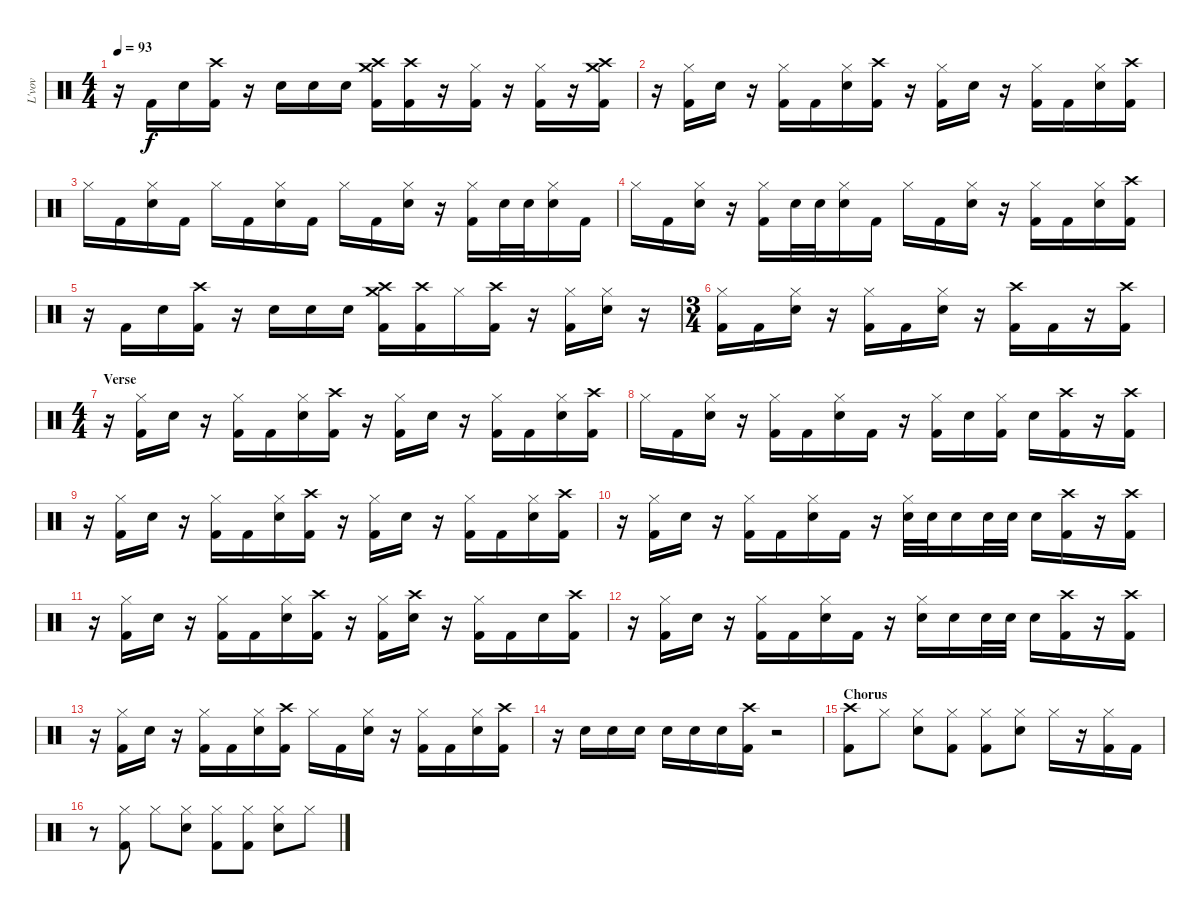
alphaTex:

\track ("L'vov" "L'vov") {instrument percussion}
\staff {score}
\articulation defaults
\ts (4 4)
\tempo 93
\clef neutral
\ks c
r.16{dy f} "Kick (hit) 2".16 "Snare (hit) 2".16 ("Kick (hit) 2" "Crash high (hit)").16 r.16 "Snare (hit) 2".16 "Snare (hit) 2".16 "Snare (hit) 2".16 ("Kick (hit) 2" "Crash high (hit)" "Crash medium (hit)").16 ("Kick (hit) 2" "Crash high (hit)").16 r.16 ("Kick (hit) 2" "Hi-Hat (closed)").16 r.16 ("Kick (hit) 2" "Hi-Hat (closed)").16 r.16 ("Kick (hit) 2" "Crash medium (hit)" "Crash high (hit)").16 |
r.16 ("Kick (hit) 2" "Hi-Hat (closed)").16 "Snare (hit) 2".16 r.16 ("Kick (hit) 2" "Hi-Hat (closed)").16 "Kick (hit) 2".16 ("Snare (hit) 2" "Hi-Hat (closed)").16 ("Kick (hit) 2" "Crash high (hit)").16 r.16 ("Kick (hit) 2" "Hi-Hat (closed)").16 "Snare (hit) 2".16 r.16 ("Kick (hit) 2" "Hi-Hat (closed)").16 "Kick (hit) 2".16 ("Snare (hit) 2" "Hi-Hat (closed)").16 ("Kick (hit) 2" "Crash high (hit)").16 |
"Hi-Hat (closed)".16 "Kick (hit) 2".16 ("Snare (hit) 2" "Hi-Hat (closed)").16 "Kick (hit) 2".16 "Hi-Hat (closed)".16 "Kick (hit) 2".16 ("Snare (hit) 2" "Hi-Hat (closed)").16 "Kick (hit) 2".16 "Hi-Hat (closed)".16 "Kick (hit) 2".16 ("Snare (hit) 2" "Hi-Hat (closed)").16 r.16 ("Kick (hit) 2" "Hi-Hat (closed)").16 "Snare (hit) 2".32 "Snare (hit) 2".32 ("Snare (hit) 2" "Hi-Hat (closed)").16 "Kick (hit) 2".16 |
"Hi-Hat (closed)".16 "Kick (hit) 2".16 ("Snare (hit) 2" "Hi-Hat (closed)").16 r.16 ("Kick (hit) 2" "Hi-Hat (closed)").16 "Snare (hit) 2".32 "Snare (hit) 2".32 ("Snare (hit) 2" "Hi-Hat (closed)").16 "Kick (hit) 2".16 "Hi-Hat (closed)".16 "Kick (hit) 2".16 ("Snare (hit) 2" "Hi-Hat (closed)").16 r.16 ("Kick (hit) 2" "Hi-Hat (closed)").16 "Kick (hit) 2".16 ("Snare (hit) 2" "Hi-Hat (closed)").16 ("Kick (hit) 2" "Crash high (hit)").16 |
r.16 "Kick (hit) 2".16 "Snare (hit) 2".16 ("Kick (hit) 2" "Crash high (hit)").16 r.16 "Snare (hit) 2".16 "Snare (hit) 2".16 "Snare (hit) 2".16 ("Kick (hit) 2" "Crash high (hit)" "Crash medium (hit)").16 ("Kick (hit) 2" "Crash high (hit)").16 "Hi-Hat (closed)".16 ("Kick (hit) 2" "Crash high (hit)").16 r.16 ("Kick (hit) 2" "Hi-Hat (closed)").16 ("Snare (hit) 2" "Hi-Hat (closed)").16 r.16 |
\ts (3 4)
("Kick (hit) 2" "Hi-Hat (closed)").16 "Kick (hit) 2".16 ("Snare (hit) 2" "Hi-Hat (closed)").16 r.16 ("Kick (hit) 2" "Hi-Hat (closed)").16 "Kick (hit) 2".16 ("Snare (hit) 2" "Hi-Hat (closed)").16 r.16 ("Kick (hit) 2" "Crash high (hit)").16 "Kick (hit) 2".16 r.16 ("Kick (hit) 2" "Crash high (hit)").16 |
\ts (4 4)
\section ("" "Verse")
r.16 ("Kick (hit) 2" "Hi-Hat (closed)").16 "Snare (hit) 2".16 r.16 ("Kick (hit) 2" "Hi-Hat (closed)").16 "Kick (hit) 2".16 ("Snare (hit) 2" "Hi-Hat (closed)").16 ("Kick (hit) 2" "Crash high (hit)").16 r.16 ("Kick (hit) 2" "Hi-Hat (closed)").16 "Snare (hit) 2".16 r.16 ("Kick (hit) 2" "Hi-Hat (closed)").16 "Kick (hit) 2".16 ("Snare (hit) 2" "Hi-Hat (closed)").16 ("Kick (hit) 2" "Crash high (hit)").16 |
"Hi-Hat (closed)".16 "Kick (hit) 2".16 ("Snare (hit) 2" "Hi-Hat (closed)").16 r.16 ("Kick (hit) 2" "Hi-Hat (closed)").16 "Kick (hit) 2".16 ("Snare (hit) 2" "Hi-Hat (closed)").16 "Kick (hit) 2".16 r.16 ("Kick (hit) 2" "Hi-Hat (closed)").16 "Snare (hit) 2".16 ("Kick (hit) 2" "Hi-Hat (closed)").16 "Snare (hit) 2".16 ("Kick (hit) 2" "Crash high (hit)").16 r.16 ("Kick (hit) 2" "Crash high (hit)").16 |
r.16 ("Kick (hit) 2" "Hi-Hat (closed)").16 "Snare (hit) 2".16 r.16 ("Kick (hit) 2" "Hi-Hat (closed)").16 "Kick (hit) 2".16 ("Snare (hit) 2" "Hi-Hat (closed)").16 ("Kick (hit) 2" "Crash high (hit)").16 r.16 ("Kick (hit) 2" "Hi-Hat (closed)").16 "Snare (hit) 2".16 r.16 ("Kick (hit) 2" "Hi-Hat (closed)").16 "Kick (hit) 2".16 ("Snare (hit) 2" "Hi-Hat (closed)").16 ("Kick (hit) 2" "Crash high (hit)").16 |
r.16 ("Kick (hit) 2" "Hi-Hat (closed)").16 "Snare (hit) 2".16 r.16 ("Kick (hit) 2" "Hi-Hat (closed)").16 "Kick (hit) 2".16 ("Snare (hit) 2" "Hi-Hat (closed)").16 "Kick (hit) 2".16 r.16 ("Snare (hit) 2" "Hi-Hat (closed)").32 "Snare (hit) 2".32 "Snare (hit) 2".16 "Snare (hit) 2".32 "Snare (hit) 2".32 "Snare (hit) 2".16 ("Kick (hit) 2" "Crash high (hit)").16 r.16 ("Kick (hit) 2" "Crash high (hit)").16 |
r.16 ("Kick (hit) 2" "Hi-Hat (closed)").16 "Snare (hit) 2".16 r.16 ("Kick (hit) 2" "Hi-Hat (closed)").16 "Kick (hit) 2".16 ("Snare (hit) 2" "Hi-Hat (closed)").16 ("Kick (hit) 2" "Crash high (hit)").16 r.16 ("Kick (hit) 2" "Hi-Hat (closed)").16 ("Snare (hit) 2" "Crash high (hit)").16 r.16 ("Kick (hit) 2" "Hi-Hat (closed)").16 "Kick (hit) 2".16 "Snare (hit) 2".16 ("Kick (hit) 2" "Crash high (hit)").16 |
r.16 ("Kick (hit) 2" "Hi-Hat (closed)").16 "Snare (hit) 2".16 r.16 ("Kick (hit) 2" "Hi-Hat (closed)").16 "Kick (hit) 2".16 ("Snare (hit) 2" "Hi-Hat (closed)").16 "Kick (hit) 2".16 r.16 ("Snare (hit) 2" "Hi-Hat (closed)").16 "Snare (hit) 2".16 "Snare (hit) 2".32 "Snare (hit) 2".32 "Snare (hit) 2".16 ("Kick (hit) 2" "Crash high (hit)").16 r.16 ("Kick (hit) 2" "Crash high (hit)").16 |
r.16 ("Kick (hit) 2" "Hi-Hat (closed)").16 "Snare (hit) 2".16 r.16 ("Kick (hit) 2" "Hi-Hat (closed)").16 "Kick (hit) 2".16 ("Snare (hit) 2" "Hi-Hat (closed)").16 ("Kick (hit) 2" "Crash high (hit)").16 "Hi-Hat (closed)".16 "Kick (hit) 2".16 ("Snare (hit) 2" "Hi-Hat (closed)").16 r.16 ("Kick (hit) 2" "Hi-Hat (closed)").16 "Kick (hit) 2".16 ("Snare (hit) 2" "Hi-Hat (closed)").16 ("Kick (hit) 2" "Crash high (hit)").16 |
r.16 "Snare (hit) 2".16 "Snare (hit) 2".16 "Snare (hit) 2".16 "Snare (hit) 2".16 "Snare (hit) 2".16 "Snare (hit) 2".16 ("Kick (hit) 2" "Crash high (hit)").16 r.2 |
\section ("" "Chorus")
("Kick (hit) 2" "Crash high (hit)").8 "Hi-Hat (closed)".8 ("Snare (hit) 2" "Hi-Hat (closed)").8 ("Kick (hit) 2" "Hi-Hat (closed)").8 ("Kick (hit) 2" "Hi-Hat (closed)").8 ("Snare (hit) 2" "Hi-Hat (closed)").8 "Hi-Hat (closed)".16 r.16 ("Kick (hit) 2" "Hi-Hat (closed)").16 "Kick (hit) 2".16 |
r.8 ("Kick (hit) 2" "Hi-Hat (closed)").8 "Hi-Hat (closed)".8 ("Snare (hit) 2" "Hi-Hat (closed)").8 ("Kick (hit) 2" "Hi-Hat (closed)").8 ("Kick (hit) 2" "Hi-Hat (closed)").8 ("Snare (hit) 2" "Hi-Hat (closed)").8 "Hi-Hat (closed)".8
